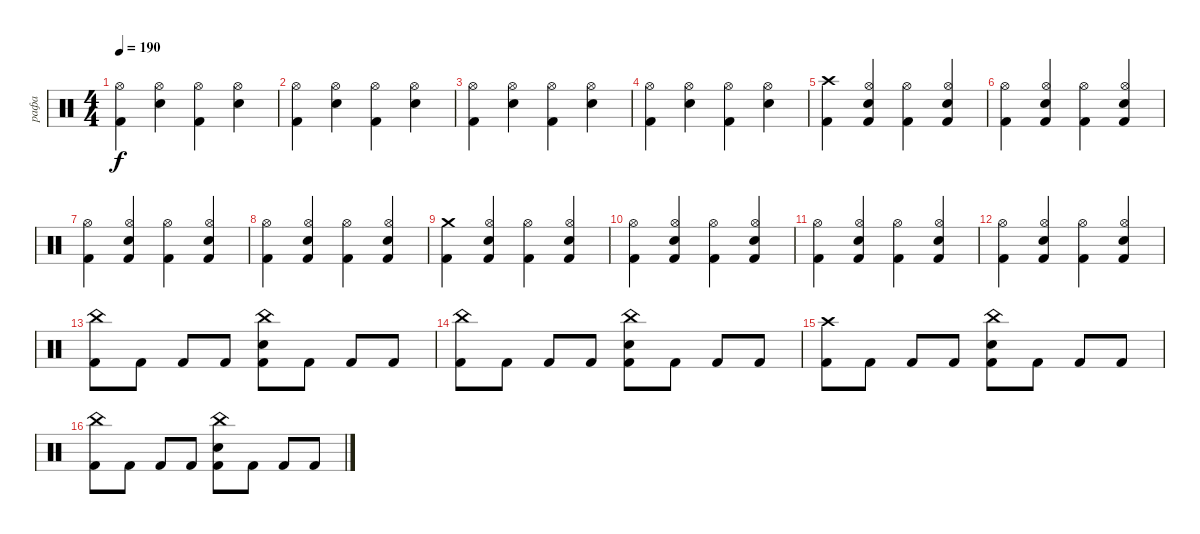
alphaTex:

\track ("рафа" "рафа") {instrument percussion}
\staff {score}
\articulation defaults
\ts (4 4)
\tempo 190
\clef neutral
\ks c
("Kick (hit) 2" "Hi-Hat (open)").4{dy f} ("Snare (hit) 2" "Hi-Hat (open)").4 ("Kick (hit) 2" "Hi-Hat (open)").4 ("Snare (hit) 2" "Hi-Hat (open)").4 |
("Kick (hit) 2" "Hi-Hat (open)").4 ("Snare (hit) 2" "Hi-Hat (open)").4 ("Kick (hit) 2" "Hi-Hat (open)").4 ("Snare (hit) 2" "Hi-Hat (open)").4 |
("Kick (hit) 2" "Hi-Hat (open)").4 ("Snare (hit) 2" "Hi-Hat (open)").4 ("Kick (hit) 2" "Hi-Hat (open)").4 ("Snare (hit) 2" "Hi-Hat (open)").4 |
("Kick (hit) 2" "Hi-Hat (open)").4 ("Snare (hit) 2" "Hi-Hat (open)").4 ("Kick (hit) 2" "Hi-Hat (open)").4 ("Snare (hit) 2" "Hi-Hat (open)").4 |
("Kick (hit) 2" "Crash high (hit)").4 ("Kick (hit) 2" "Snare (hit) 2" "Hi-Hat (open)").4 ("Kick (hit) 2" "Hi-Hat (open)").4 ("Kick (hit) 2" "Snare (hit) 2" "Hi-Hat (open)").4 |
("Kick (hit) 2" "Hi-Hat (open)").4 ("Kick (hit) 2" "Snare (hit) 2" "Hi-Hat (open)").4 ("Kick (hit) 2" "Hi-Hat (open)").4 ("Kick (hit) 2" "Snare (hit) 2" "Hi-Hat (open)").4 |
("Kick (hit) 2" "Hi-Hat (open)").4 ("Kick (hit) 2" "Snare (hit) 2" "Hi-Hat (open)").4 ("Kick (hit) 2" "Hi-Hat (open)").4 ("Kick (hit) 2" "Snare (hit) 2" "Hi-Hat (open)").4 |
("Kick (hit) 2" "Hi-Hat (open)").4 ("Kick (hit) 2" "Snare (hit) 2" "Hi-Hat (open)").4 ("Kick (hit) 2" "Hi-Hat (open)").4 ("Kick (hit) 2" "Snare (hit) 2" "Hi-Hat (open)").4 |
("Kick (hit) 2" "Crash medium (hit)").4 ("Kick (hit) 2" "Snare (hit) 2" "Hi-Hat (open)").4 ("Kick (hit) 2" "Hi-Hat (open)").4 ("Kick (hit) 2" "Snare (hit) 2" "Hi-Hat (open)").4 |
("Kick (hit) 2" "Hi-Hat (open)").4 ("Kick (hit) 2" "Snare (hit) 2" "Hi-Hat (open)").4 ("Kick (hit) 2" "Hi-Hat (open)").4 ("Kick (hit) 2" "Snare (hit) 2" "Hi-Hat (open)").4 |
("Kick (hit) 2" "Hi-Hat (open)").4 ("Kick (hit) 2" "Snare (hit) 2" "Hi-Hat (open)").4 ("Kick (hit) 2" "Hi-Hat (open)").4 ("Kick (hit) 2" "Snare (hit) 2" "Hi-Hat (open)").4 |
("Kick (hit) 2" "Hi-Hat (open)").4 ("Kick (hit) 2" "Snare (hit) 2" "Hi-Hat (open)").4 ("Kick (hit) 2" "Hi-Hat (open)").4 ("Kick (hit) 2" "Snare (hit) 2" "Hi-Hat (open)").4 |
("Kick (hit) 2" "China (hit)").8 "Kick (hit) 2".8 "Kick (hit) 2".8 "Kick (hit) 2".8 ("Kick (hit) 2" "Snare (hit) 2" "China (hit)").8 "Kick (hit) 2".8 "Kick (hit) 2".8 "Kick (hit) 2".8 |
("Kick (hit) 2" "China (hit)").8 "Kick (hit) 2".8 "Kick (hit) 2".8 "Kick (hit) 2".8 ("Kick (hit) 2" "Snare (hit) 2" "China (hit)").8 "Kick (hit) 2".8 "Kick (hit) 2".8 "Kick (hit) 2".8 |
("Kick (hit) 2" "Crash high (hit)").8 "Kick (hit) 2".8 "Kick (hit) 2".8 "Kick (hit) 2".8 ("Kick (hit) 2" "Snare (hit) 2" "China (hit)").8 "Kick (hit) 2".8 "Kick (hit) 2".8 "Kick (hit) 2".8 |
("Kick (hit) 2" "China (hit)").8 "Kick (hit) 2".8 "Kick (hit) 2".8 "Kick (hit) 2".8 ("Kick (hit) 2" "Snare (hit) 2" "China (hit)").8 "Kick (hit) 2".8 "Kick (hit) 2".8 "Kick (hit) 2".8
